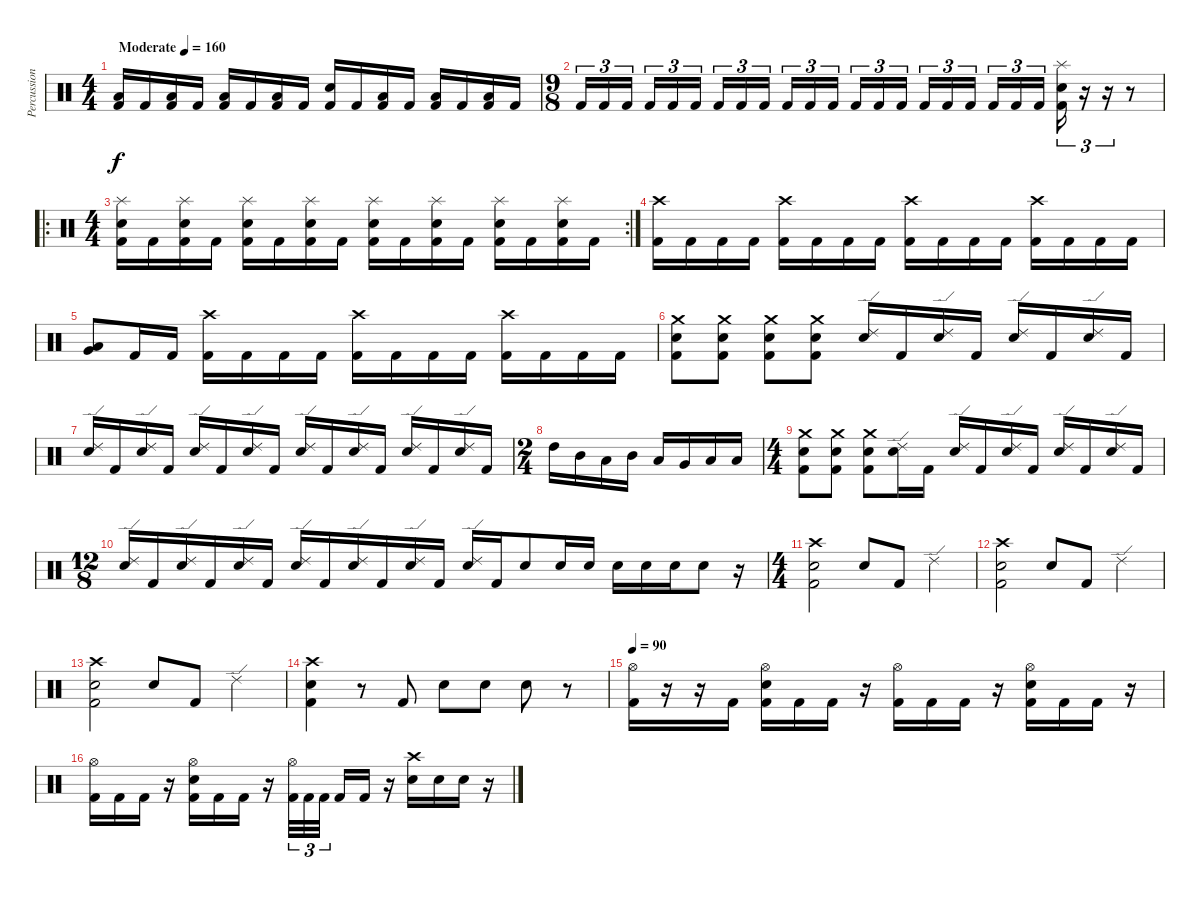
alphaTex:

\track ("Percussion" "Percussion") {instrument percussion}
\staff {score}
\articulation defaults
\ts (4 4)
\tempo (160 "Moderate")
\clef neutral
\ks c
("Low Floor Tom (hit)" "Kick (hit) 2").16{dy f} "Kick (hit) 2".16 ("Low Floor Tom (hit)" "Kick (hit) 2").16 "Kick (hit) 2".16 ("Low Floor Tom (hit)" "Kick (hit) 2").16 "Kick (hit) 2".16 ("Low Floor Tom (hit)" "Kick (hit) 2").16 "Kick (hit) 2".16 ("Electric Snare (hit)" "Kick (hit) 2").16 "Kick (hit) 2".16 ("Low Floor Tom (hit)" "Kick (hit) 2").16 "Kick (hit) 2".16 ("Low Floor Tom (hit)" "Kick (hit) 2").16 "Kick (hit) 2".16 ("Low Floor Tom (hit)" "Kick (hit) 2").16 "Kick (hit) 2".16 |
\ts (9 8)
"Kick (hit) 2".16{tu (3 2)} "Kick (hit) 2".16{tu (3 2)} "Kick (hit) 2".16{tu (3 2) beam splitsecondary} "Kick (hit) 2".16{tu (3 2)} "Kick (hit) 2".16{tu (3 2)} "Kick (hit) 2".16{tu (3 2) beam splitsecondary} "Kick (hit) 2".16{tu (3 2)} "Kick (hit) 2".16{tu (3 2)} "Kick (hit) 2".16{tu (3 2)} "Kick (hit) 2".16{tu (3 2)} "Kick (hit) 2".16{tu (3 2)} "Kick (hit) 2".16{tu (3 2) beam splitsecondary} "Kick (hit) 2".16{tu (3 2)} "Kick (hit) 2".16{tu (3 2)} "Kick (hit) 2".16{tu (3 2) beam splitsecondary} "Kick (hit) 2".16{tu (3 2)} "Kick (hit) 2".16{tu (3 2)} "Kick (hit) 2".16{tu (3 2)} "Kick (hit) 2".16{tu (3 2)} "Kick (hit) 2".16{tu (3 2)} "Kick (hit) 2".16{tu (3 2) beam splitsecondary} ("Splash (hit)"{pm} "Electric Snare (hit)" "Kick (hit) 2").16{tu (3 2)} r.16{tu (3 2)} r.16{tu (3 2)} r.8 |
\ro
\rc 2
\ts (4 4)
("Splash (hit)" "Electric Snare (hit)" "Kick (hit) 2").16 "Kick (hit) 2".16 ("Splash (hit)" "Electric Snare (hit)" "Kick (hit) 2").16 "Kick (hit) 2".16 ("Splash (hit)" "Electric Snare (hit)" "Kick (hit) 2").16 "Kick (hit) 2".16 ("Splash (hit)" "Electric Snare (hit)" "Kick (hit) 2").16 "Kick (hit) 2".16 ("Splash (hit)" "Electric Snare (hit)" "Kick (hit) 2").16 "Kick (hit) 2".16 ("Splash (hit)" "Electric Snare (hit)" "Kick (hit) 2").16 "Kick (hit) 2".16 ("Splash (hit)" "Electric Snare (hit)" "Kick (hit) 2").16 "Kick (hit) 2".16 ("Splash (hit)" "Electric Snare (hit)" "Kick (hit) 2").16 "Kick (hit) 2".16 |
("Crash high (hit)" "Kick (hit) 2").16 "Kick (hit) 2".16 "Kick (hit) 2".16 "Kick (hit) 2".16 ("Crash high (hit)" "Kick (hit) 2").16 "Kick (hit) 2".16 "Kick (hit) 2".16 "Kick (hit) 2".16 ("Crash high (hit)" "Kick (hit) 2").16 "Kick (hit) 2".16 "Kick (hit) 2".16 "Kick (hit) 2".16 ("Crash high (hit)" "Kick (hit) 2").16 "Kick (hit) 2".16 "Kick (hit) 2".16 "Kick (hit) 2".16 |
("Low Floor Tom (hit)" "Very Low Tom (hit)").8 "Kick (hit) 2".16 "Kick (hit) 2".16 ("Crash high (hit)" "Kick (hit) 2").16 "Kick (hit) 2".16 "Kick (hit) 2".16 "Kick (hit) 2".16 ("Crash high (hit)" "Kick (hit) 2").16 "Kick (hit) 2".16 "Kick (hit) 2".16 "Kick (hit) 2".16 ("Crash high (hit)" "Kick (hit) 2").16 "Kick (hit) 2".16 "Kick (hit) 2".16 "Kick (hit) 2".16 |
("Crash medium (hit)" "Electric Snare (hit)" "Kick (hit) 2").8 ("Crash medium (hit)" "Electric Snare (hit)" "Kick (hit) 2").8 ("Crash medium (hit)" "Electric Snare (hit)" "Kick (hit) 2").8 ("Crash medium (hit)" "Electric Snare (hit)" "Kick (hit) 2").8 ("Ride (edge) 2" "Electric Snare (hit)").16 "Kick (hit) 2".16 ("Ride (edge) 2" "Electric Snare (hit)").16 "Kick (hit) 2".16 ("Ride (edge) 2" "Electric Snare (hit)").16 "Kick (hit) 2".16 ("Ride (edge) 2" "Electric Snare (hit)").16 "Kick (hit) 2".16 |
("Ride (edge) 2" "Electric Snare (hit)").16 "Kick (hit) 2".16 ("Ride (edge) 2" "Electric Snare (hit)").16 "Kick (hit) 2".16 ("Ride (edge) 2" "Electric Snare (hit)").16 "Kick (hit) 2".16 ("Ride (edge) 2" "Electric Snare (hit)").16 "Kick (hit) 2".16 ("Ride (edge) 2" "Electric Snare (hit)").16 "Kick (hit) 2".16 ("Ride (edge) 2" "Electric Snare (hit)").16 "Kick (hit) 2".16 ("Ride (edge) 2" "Electric Snare (hit)").16 "Kick (hit) 2".16 ("Ride (edge) 2" "Electric Snare (hit)").16 "Kick (hit) 2".16 |
\ts (2 4)
"High Tom (hit)".16 "Mid Tom (hit)".16 "Low Tom (hit)".16 "Mid Tom (hit)".16 "Low Tom (hit)".16 "Very Low Tom (hit)".16 "Low Tom (hit)".16 "Low Floor Tom (hit)".16 |
\ts (4 4)
("Crash medium (hit)" "Electric Snare (hit)" "Kick (hit) 2").8 ("Crash medium (hit)" "Electric Snare (hit)" "Kick (hit) 2").8 ("Crash medium (hit)" "Electric Snare (hit)" "Kick (hit) 2").8 ("Ride (edge) 2" "Electric Snare (hit)").16 "Kick (hit) 2".16 ("Ride (edge) 2" "Electric Snare (hit)").16 "Kick (hit) 2".16 ("Ride (edge) 2" "Electric Snare (hit)").16 "Kick (hit) 2".16 ("Ride (edge) 2" "Electric Snare (hit)").16 "Kick (hit) 2".16 ("Ride (edge) 2" "Electric Snare (hit)").16 "Kick (hit) 2".16 |
\ts (12 8)
("Ride (edge) 2" "Electric Snare (hit)").16 "Kick (hit) 2".16 ("Ride (edge) 2" "Electric Snare (hit)").16 "Kick (hit) 2".16 ("Ride (edge) 2" "Electric Snare (hit)").16 "Kick (hit) 2".16 ("Ride (edge) 2" "Electric Snare (hit)").16 "Kick (hit) 2".16 ("Ride (edge) 2" "Electric Snare (hit)").16 "Kick (hit) 2".16 ("Ride (edge) 2" "Electric Snare (hit)").16 "Kick (hit) 2".16 ("Ride (edge) 2" "Electric Snare (hit)").16 "Kick (hit) 2".16 "Electric Snare (hit)".8 "Electric Snare (hit)".16 "Electric Snare (hit)".16 "Electric Snare (hit)".16 "Electric Snare (hit)".16 "Electric Snare (hit)".16 "Electric Snare (hit)".8 r.16 |
\ts (4 4)
("Crash high (hit)" "Electric Snare (hit)" "Kick (hit) 2").2 "Electric Snare (hit)".8 "Kick (hit) 2".8 "Ride (edge) 2".4 |
("Crash high (hit)" "Electric Snare (hit)" "Kick (hit) 2").2 "Electric Snare (hit)".8 "Kick (hit) 2".8 "Ride (edge) 2".4 |
("Crash high (hit)" "Electric Snare (hit)" "Kick (hit) 2").2 "Electric Snare (hit)".8 "Kick (hit) 2".8 "Ride (edge) 2".4 |
("Crash high (hit)" "Electric Snare (hit)" "Kick (hit) 2").4 r.8 "Kick (hit) 2".8 "Electric Snare (hit)".8 "Electric Snare (hit)".8 "Electric Snare (hit)".8 r.8 |
\tempo 90
("Hi-Hat (open)" "Kick (hit) 2").16 r.16 r.16 "Kick (hit) 2".16 ("Hi-Hat (open)" "Electric Snare (hit)" "Kick (hit) 2").16 "Kick (hit) 2".16 "Kick (hit) 2".16 r.16 ("Hi-Hat (open)" "Kick (hit) 2").16 "Kick (hit) 2".16 "Kick (hit) 2".16 r.16 ("Hi-Hat (open)" "Electric Snare (hit)" "Kick (hit) 2").16 "Kick (hit) 2".16 "Kick (hit) 2".16 r.16 |
("Hi-Hat (open)" "Kick (hit) 2").16 "Kick (hit) 2".16 "Kick (hit) 2".16 r.16 ("Hi-Hat (open)" "Electric Snare (hit)" "Kick (hit) 2").16 "Kick (hit) 2".16 "Kick (hit) 2".16 r.16 ("Hi-Hat (open)" "Kick (hit) 2").32{tu (3 2)} "Kick (hit) 2".32{tu (3 2)} "Kick (hit) 2".32{tu (3 2) beam splitsecondary} "Kick (hit) 2".16 "Kick (hit) 2".16 r.16 ("Crash high (hit)" "Electric Snare (hit)").16 "Electric Snare (hit)".16 "Electric Snare (hit)".16 r.16
